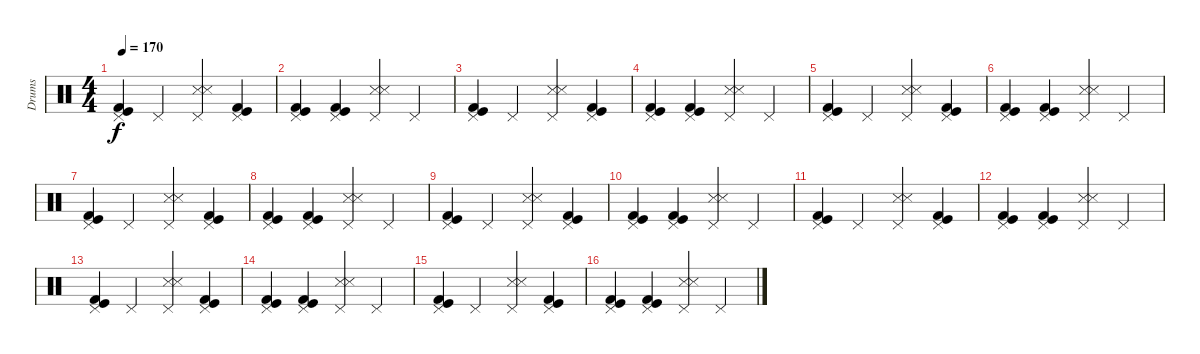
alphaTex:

\track ("Drums" "Drums") {instrument percussion}
\staff {score}
\articulation defaults
\ts (4 4)
\tempo 170
\clef neutral
\ks c
("Pedal Hi-Hat (hit)" "Kick (hit)" "Kick (hit) 2").4{dy f} "Pedal Hi-Hat (hit)".4 ("Pedal Hi-Hat (hit)" "Snare (side stick) 3" "Snare (side stick) 3").4 ("Pedal Hi-Hat (hit)" "Kick (hit)" "Kick (hit) 2").4 |
("Pedal Hi-Hat (hit)" "Kick (hit)" "Kick (hit) 2").4 ("Pedal Hi-Hat (hit)" "Kick (hit)" "Kick (hit) 2").4 ("Pedal Hi-Hat (hit)" "Snare (side stick) 3" "Snare (side stick) 3").4 "Pedal Hi-Hat (hit)".4 |
("Pedal Hi-Hat (hit)" "Kick (hit)" "Kick (hit) 2").4 "Pedal Hi-Hat (hit)".4 ("Pedal Hi-Hat (hit)" "Snare (side stick) 3" "Snare (side stick) 3").4 ("Pedal Hi-Hat (hit)" "Kick (hit)" "Kick (hit) 2").4 |
("Pedal Hi-Hat (hit)" "Kick (hit)" "Kick (hit) 2").4 ("Pedal Hi-Hat (hit)" "Kick (hit)" "Kick (hit) 2").4 ("Pedal Hi-Hat (hit)" "Snare (side stick) 3" "Snare (side stick) 3").4 "Pedal Hi-Hat (hit)".4 |
("Pedal Hi-Hat (hit)" "Kick (hit)" "Kick (hit) 2").4 "Pedal Hi-Hat (hit)".4 ("Pedal Hi-Hat (hit)" "Snare (side stick) 3" "Snare (side stick) 3").4 ("Pedal Hi-Hat (hit)" "Kick (hit)" "Kick (hit) 2").4 |
("Pedal Hi-Hat (hit)" "Kick (hit)" "Kick (hit) 2").4 ("Pedal Hi-Hat (hit)" "Kick (hit)" "Kick (hit) 2").4 ("Pedal Hi-Hat (hit)" "Snare (side stick) 3" "Snare (side stick) 3").4 "Pedal Hi-Hat (hit)".4 |
("Pedal Hi-Hat (hit)" "Kick (hit)" "Kick (hit) 2").4 "Pedal Hi-Hat (hit)".4 ("Pedal Hi-Hat (hit)" "Snare (side stick) 3" "Snare (side stick) 3").4 ("Pedal Hi-Hat (hit)" "Kick (hit)" "Kick (hit) 2").4 |
("Pedal Hi-Hat (hit)" "Kick (hit)" "Kick (hit) 2").4 ("Pedal Hi-Hat (hit)" "Kick (hit)" "Kick (hit) 2").4 ("Pedal Hi-Hat (hit)" "Snare (side stick) 3" "Snare (side stick) 3").4 "Pedal Hi-Hat (hit)".4 |
("Pedal Hi-Hat (hit)" "Kick (hit)" "Kick (hit) 2").4 "Pedal Hi-Hat (hit)".4 ("Pedal Hi-Hat (hit)" "Snare (side stick) 3" "Snare (side stick) 3").4 ("Pedal Hi-Hat (hit)" "Kick (hit)" "Kick (hit) 2").4 |
("Pedal Hi-Hat (hit)" "Kick (hit)" "Kick (hit) 2").4 ("Pedal Hi-Hat (hit)" "Kick (hit)" "Kick (hit) 2").4 ("Pedal Hi-Hat (hit)" "Snare (side stick) 3" "Snare (side stick) 3").4 "Pedal Hi-Hat (hit)".4 |
("Pedal Hi-Hat (hit)" "Kick (hit)" "Kick (hit) 2").4 "Pedal Hi-Hat (hit)".4 ("Pedal Hi-Hat (hit)" "Snare (side stick) 3" "Snare (side stick) 3").4 ("Pedal Hi-Hat (hit)" "Kick (hit)" "Kick (hit) 2").4 |
("Pedal Hi-Hat (hit)" "Kick (hit)" "Kick (hit) 2").4 ("Pedal Hi-Hat (hit)" "Kick (hit)" "Kick (hit) 2").4 ("Pedal Hi-Hat (hit)" "Snare (side stick) 3" "Snare (side stick) 3").4 "Pedal Hi-Hat (hit)".4 |
("Pedal Hi-Hat (hit)" "Kick (hit)" "Kick (hit) 2").4 "Pedal Hi-Hat (hit)".4 ("Pedal Hi-Hat (hit)" "Snare (side stick) 3" "Snare (side stick) 3").4 ("Pedal Hi-Hat (hit)" "Kick (hit)" "Kick (hit) 2").4 |
("Pedal Hi-Hat (hit)" "Kick (hit)" "Kick (hit) 2").4 ("Pedal Hi-Hat (hit)" "Kick (hit)" "Kick (hit) 2").4 ("Pedal Hi-Hat (hit)" "Snare (side stick) 3" "Snare (side stick) 3").4 "Pedal Hi-Hat (hit)".4 |
("Pedal Hi-Hat (hit)" "Kick (hit)" "Kick (hit) 2").4 "Pedal Hi-Hat (hit)".4 ("Pedal Hi-Hat (hit)" "Snare (side stick) 3" "Snare (side stick) 3").4 ("Pedal Hi-Hat (hit)" "Kick (hit)" "Kick (hit) 2").4 |
("Pedal Hi-Hat (hit)" "Kick (hit)" "Kick (hit) 2").4 ("Pedal Hi-Hat (hit)" "Kick (hit)" "Kick (hit) 2").4 ("Pedal Hi-Hat (hit)" "Snare (side stick) 3" "Snare (side stick) 3").4 "Pedal Hi-Hat (hit)".4
